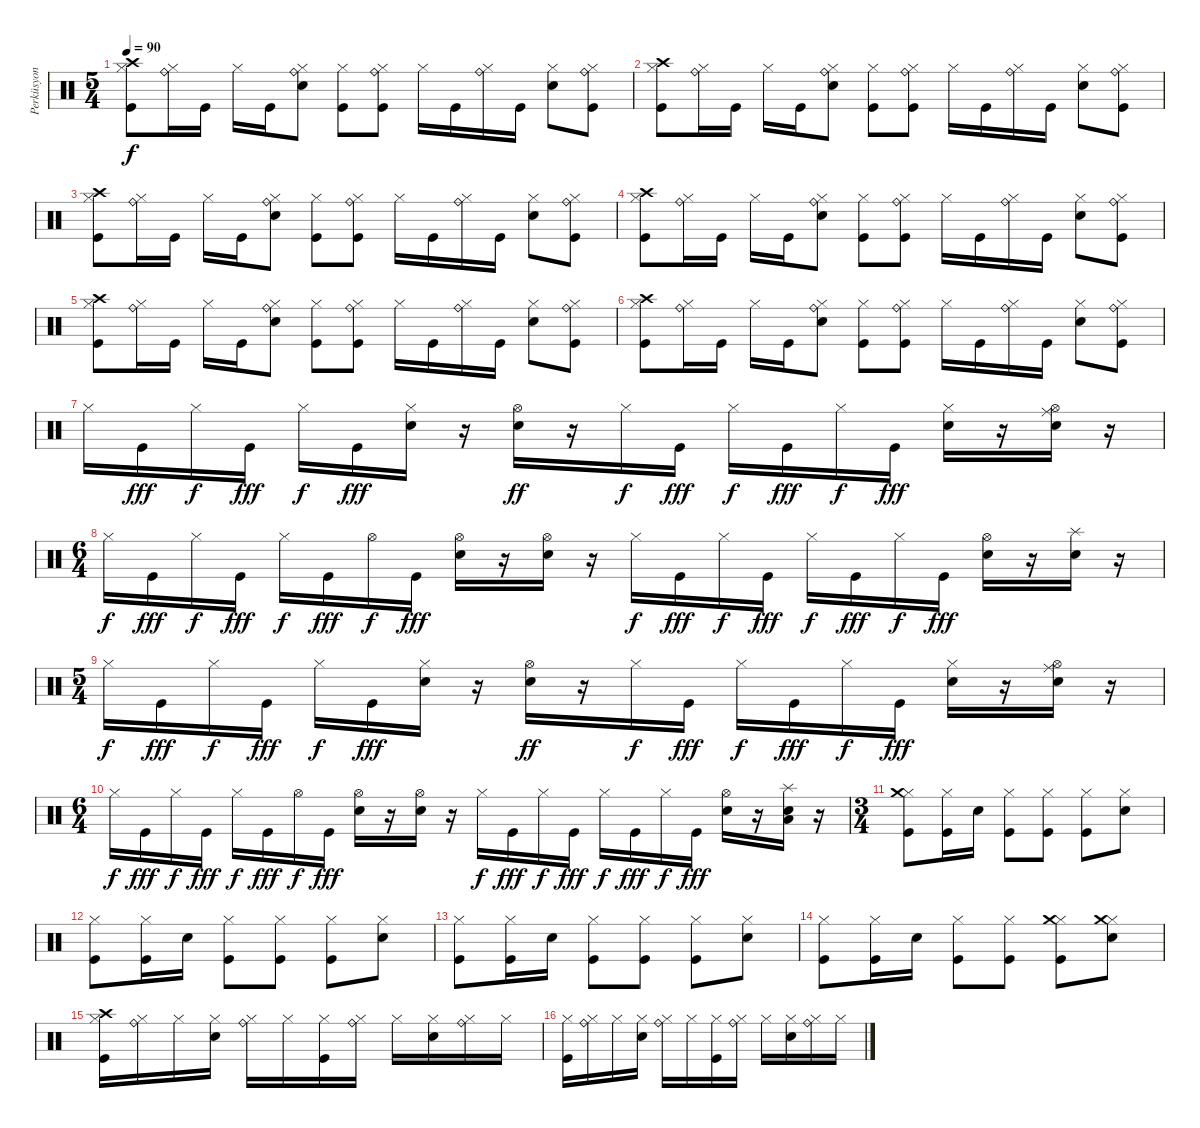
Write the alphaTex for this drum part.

\track ("Perküsyon" "Perküsyon") {instrument percussion}
\staff {score}
\articulation defaults
\ts (5 4)
\tempo 90
\clef neutral
\ks c
("Hi-Hat (closed)" "Crash high (hit)" "Kick (hit)").8{dy f} ("Ride (bell)" "Hi-Hat (closed)").16 "Kick (hit)".16 "Hi-Hat (closed)".16 "Kick (hit)".16 ("Electric Snare (hit)" "Ride (bell)" "Hi-Hat (closed)").8 ("Hi-Hat (closed)" "Kick (hit)").8 ("Ride (bell)" "Hi-Hat (closed)" "Kick (hit)").8 "Hi-Hat (closed)".16 "Kick (hit)".16 ("Ride (bell)" "Hi-Hat (closed)").16 "Kick (hit)".16 ("Electric Snare (hit)" "Hi-Hat (closed)").8 ("Ride (bell)" "Hi-Hat (closed)" "Kick (hit)").8 |
("Hi-Hat (closed)" "Crash high (hit)" "Kick (hit)").8 ("Ride (bell)" "Hi-Hat (closed)").16 "Kick (hit)".16 "Hi-Hat (closed)".16 "Kick (hit)".16 ("Electric Snare (hit)" "Ride (bell)" "Hi-Hat (closed)").8 ("Hi-Hat (closed)" "Kick (hit)").8 ("Ride (bell)" "Hi-Hat (closed)" "Kick (hit)").8 "Hi-Hat (closed)".16 "Kick (hit)".16 ("Ride (bell)" "Hi-Hat (closed)").16 "Kick (hit)".16 ("Electric Snare (hit)" "Hi-Hat (closed)").8 ("Ride (bell)" "Hi-Hat (closed)" "Kick (hit)").8 |
("Hi-Hat (closed)" "Crash high (hit)" "Kick (hit)").8 ("Ride (bell)" "Hi-Hat (closed)").16 "Kick (hit)".16 "Hi-Hat (closed)".16 "Kick (hit)".16 ("Electric Snare (hit)" "Ride (bell)" "Hi-Hat (closed)").8 ("Hi-Hat (closed)" "Kick (hit)").8 ("Ride (bell)" "Hi-Hat (closed)" "Kick (hit)").8 "Hi-Hat (closed)".16 "Kick (hit)".16 ("Ride (bell)" "Hi-Hat (closed)").16 "Kick (hit)".16 ("Electric Snare (hit)" "Hi-Hat (closed)").8 ("Ride (bell)" "Hi-Hat (closed)" "Kick (hit)").8 |
("Hi-Hat (closed)" "Crash high (hit)" "Kick (hit)").8 ("Ride (bell)" "Hi-Hat (closed)").16 "Kick (hit)".16 "Hi-Hat (closed)".16 "Kick (hit)".16 ("Electric Snare (hit)" "Ride (bell)" "Hi-Hat (closed)").8 ("Hi-Hat (closed)" "Kick (hit)").8 ("Ride (bell)" "Hi-Hat (closed)" "Kick (hit)").8 "Hi-Hat (closed)".16 "Kick (hit)".16 ("Ride (bell)" "Hi-Hat (closed)").16 "Kick (hit)".16 ("Electric Snare (hit)" "Hi-Hat (closed)").8 ("Ride (bell)" "Hi-Hat (closed)" "Kick (hit)").8 |
("Hi-Hat (closed)" "Crash high (hit)" "Kick (hit)").8 ("Ride (bell)" "Hi-Hat (closed)").16 "Kick (hit)".16 "Hi-Hat (closed)".16 "Kick (hit)".16 ("Electric Snare (hit)" "Ride (bell)" "Hi-Hat (closed)").8 ("Hi-Hat (closed)" "Kick (hit)").8 ("Ride (bell)" "Hi-Hat (closed)" "Kick (hit)").8 "Hi-Hat (closed)".16 "Kick (hit)".16 ("Ride (bell)" "Hi-Hat (closed)").16 "Kick (hit)".16 ("Electric Snare (hit)" "Hi-Hat (closed)").8 ("Ride (bell)" "Hi-Hat (closed)" "Kick (hit)").8 |
("Hi-Hat (closed)" "Crash high (hit)" "Kick (hit)").8 ("Ride (bell)" "Hi-Hat (closed)").16 "Kick (hit)".16 "Hi-Hat (closed)".16 "Kick (hit)".16 ("Electric Snare (hit)" "Ride (bell)" "Hi-Hat (closed)").8 ("Hi-Hat (closed)" "Kick (hit)").8 ("Ride (bell)" "Hi-Hat (closed)" "Kick (hit)").8 "Hi-Hat (closed)".16 "Kick (hit)".16 ("Ride (bell)" "Hi-Hat (closed)").16 "Kick (hit)".16 ("Electric Snare (hit)" "Hi-Hat (closed)").8 ("Ride (bell)" "Hi-Hat (closed)" "Kick (hit)").8 |
"Hi-Hat (closed)".16 "Kick (hit)".16{dy fff} "Hi-Hat (closed)".16{dy f} "Kick (hit)".16{dy fff} "Hi-Hat (closed)".16{dy f} "Kick (hit)".16{dy fff} ("Electric Snare (hit)" "Hi-Hat (closed)").16 r.16 ("Electric Snare (hit)" "Hi-Hat (open)").16{dy ff} r.16 "Hi-Hat (closed)".16{dy f} "Kick (hit)".16{dy fff} "Hi-Hat (closed)".16{dy f} "Kick (hit)".16{dy fff} "Hi-Hat (closed)".16{dy f} "Kick (hit)".16{dy fff} ("Electric Snare (hit)" "Hi-Hat (closed)").16 r.16 ("Electric Snare (hit)" "Ride (middle)" "Hi-Hat (open)").16 r.16 |
\ts (6 4)
"Hi-Hat (closed)".16{dy f} "Kick (hit)".16{dy fff} "Hi-Hat (closed)".16{dy f} "Kick (hit)".16{dy fff} "Hi-Hat (closed)".16{dy f} "Kick (hit)".16{dy fff} "Hi-Hat (open)".16{dy f} "Kick (hit)".16{dy fff} ("Electric Snare (hit)" "Hi-Hat (open)").16 r.16 ("Electric Snare (hit)" "Hi-Hat (open)").16 r.16 "Hi-Hat (closed)".16{dy f} "Kick (hit)".16{dy fff} "Hi-Hat (closed)".16{dy f} "Kick (hit)".16{dy fff} "Hi-Hat (closed)".16{dy f} "Kick (hit)".16{dy fff} "Hi-Hat (closed)".16{dy f} "Kick (hit)".16{dy fff} ("Electric Snare (hit)" "Hi-Hat (open)").16 r.16 ("Electric Snare (hit)" "Splash (hit)").16 r.16 |
\ts (5 4)
"Hi-Hat (closed)".16{dy f} "Kick (hit)".16{dy fff} "Hi-Hat (closed)".16{dy f} "Kick (hit)".16{dy fff} "Hi-Hat (closed)".16{dy f} "Kick (hit)".16{dy fff} ("Electric Snare (hit)" "Hi-Hat (closed)").16 r.16 ("Electric Snare (hit)" "Hi-Hat (open)").16{dy ff} r.16 "Hi-Hat (closed)".16{dy f} "Kick (hit)".16{dy fff} "Hi-Hat (closed)".16{dy f} "Kick (hit)".16{dy fff} "Hi-Hat (closed)".16{dy f} "Kick (hit)".16{dy fff} ("Electric Snare (hit)" "Hi-Hat (closed)").16 r.16 ("Electric Snare (hit)" "Ride (middle)" "Hi-Hat (open)").16 r.16 |
\ts (6 4)
"Hi-Hat (closed)".16{dy f} "Kick (hit)".16{dy fff} "Hi-Hat (closed)".16{dy f} "Kick (hit)".16{dy fff} "Hi-Hat (closed)".16{dy f} "Kick (hit)".16{dy fff} "Hi-Hat (open)".16{dy f} "Kick (hit)".16{dy fff} ("Electric Snare (hit)" "Hi-Hat (open)").16 r.16 ("Electric Snare (hit)" "Hi-Hat (open)").16 r.16 "Hi-Hat (closed)".16{dy f} "Kick (hit)".16{dy fff} "Hi-Hat (closed)".16{dy f} "Kick (hit)".16{dy fff} "Hi-Hat (closed)".16{dy f} "Kick (hit)".16{dy fff} "Hi-Hat (closed)".16{dy f} "Kick (hit)".16{dy fff} ("Electric Snare (hit)" "Hi-Hat (open)").16 r.16 ("Electric Snare (hit)" "Low Floor Tom (hit)" "Splash (hit)").16 r.16 |
\ts (3 4)
("Kick (hit)" "Hi-Hat (closed)" "Crash medium (hit)").8 ("Kick (hit)" "Hi-Hat (closed)").16 "Electric Snare (hit)".16 ("Kick (hit)" "Hi-Hat (closed)").8 ("Kick (hit)" "Hi-Hat (closed)").8 ("Kick (hit)" "Hi-Hat (closed)").8 ("Electric Snare (hit)" "Hi-Hat (closed)").8 |
("Kick (hit)" "Hi-Hat (closed)").8 ("Kick (hit)" "Hi-Hat (closed)").16 "Electric Snare (hit)".16 ("Kick (hit)" "Hi-Hat (closed)").8 ("Kick (hit)" "Hi-Hat (closed)").8 ("Kick (hit)" "Hi-Hat (closed)").8 ("Electric Snare (hit)" "Hi-Hat (closed)").8 |
("Kick (hit)" "Hi-Hat (closed)").8 ("Kick (hit)" "Hi-Hat (closed)").16 "Electric Snare (hit)".16 ("Kick (hit)" "Hi-Hat (closed)").8 ("Kick (hit)" "Hi-Hat (closed)").8 ("Kick (hit)" "Hi-Hat (closed)").8 ("Electric Snare (hit)" "Hi-Hat (closed)").8 |
("Kick (hit)" "Hi-Hat (closed)").8 ("Kick (hit)" "Hi-Hat (closed)").16 "Electric Snare (hit)".16 ("Kick (hit)" "Hi-Hat (closed)").8 ("Kick (hit)" "Hi-Hat (closed)").8 ("Kick (hit)" "Hi-Hat (closed)" "Crash medium (hit)").8 ("Electric Snare (hit)" "Hi-Hat (closed)" "Crash medium (hit)").8 |
("Kick (hit)" "Hi-Hat (closed)" "Crash high (hit)").16 ("Ride (bell)" "Hi-Hat (closed)").16 "Hi-Hat (closed)".16 ("Electric Snare (hit)" "Hi-Hat (closed)").16 ("Ride (bell)" "Hi-Hat (closed)").16 "Hi-Hat (closed)".16 ("Kick (hit)" "Hi-Hat (closed)").16 ("Ride (bell)" "Hi-Hat (closed)").16 "Hi-Hat (closed)".16 ("Electric Snare (hit)" "Hi-Hat (closed)").16 ("Ride (bell)" "Hi-Hat (closed)").16 "Hi-Hat (closed)".16 |
("Kick (hit)" "Hi-Hat (closed)").16 ("Ride (bell)" "Hi-Hat (closed)").16 "Hi-Hat (closed)".16 ("Electric Snare (hit)" "Hi-Hat (closed)").16 ("Ride (bell)" "Hi-Hat (closed)").16 "Hi-Hat (closed)".16 ("Kick (hit)" "Hi-Hat (closed)").16 ("Ride (bell)" "Hi-Hat (closed)").16 "Hi-Hat (closed)".16 ("Electric Snare (hit)" "Hi-Hat (closed)").16 ("Ride (bell)" "Hi-Hat (closed)").16 "Hi-Hat (closed)".16
